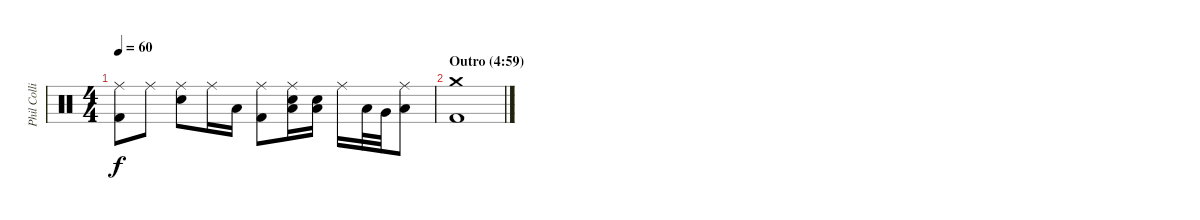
\track ("Phil Collins (drums)" "Phil Colli") {instrument percussion}
\staff {score}
\articulation defaults
\ts (4 4)
\tempo 60
\clef neutral
\ks c
("Ride (middle)" "Kick (hit) 2").8{dy f} "Ride (middle)".8 ("Ride (middle)" "Electric Snare (hit)").8 "Ride (middle)".16 "Low Tom (hit)".16 ("Ride (middle)" "Kick (hit) 2").8 ("Ride (middle)" "Low Tom (hit)" "Electric Snare (hit)").16 ("Low Tom (hit)" "Electric Snare (hit)").16 "Ride (middle)".16 "Low Tom (hit)".32 "Very Low Tom (hit)".32 ("Ride (middle)" "Low Floor Tom (hit)").8 |
\section ("" "Outro (4:59)")
("Crash medium (hit)" "Kick (hit) 2").1
